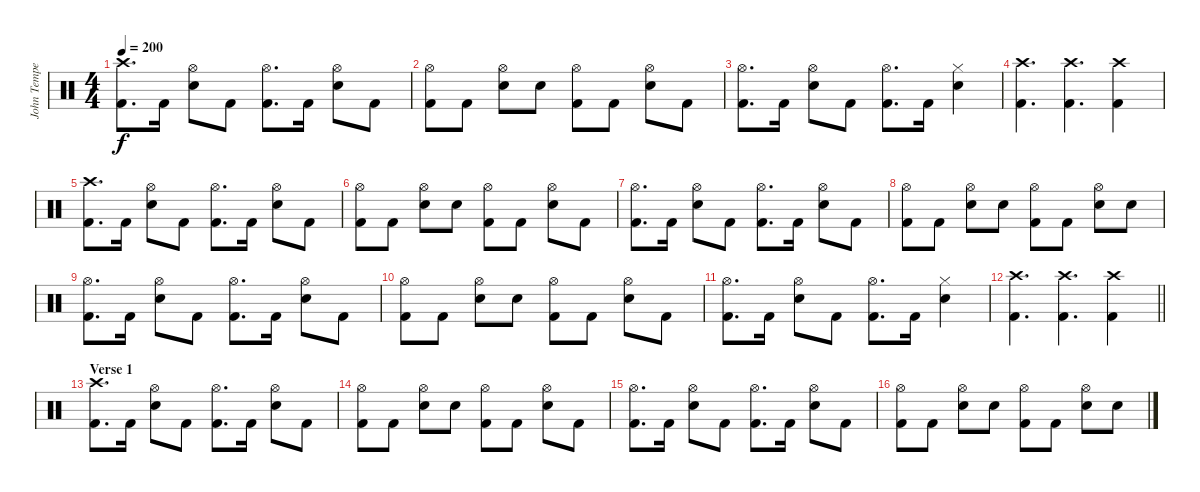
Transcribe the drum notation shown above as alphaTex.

\track ("John Tempesta" "John Tempe") {instrument percussion}
\staff {score}
\articulation defaults
\ts (4 4)
\tempo 200
\clef neutral
\ks c
("Crash high (hit)" "Kick (hit) 2").8{d dy f} "Kick (hit) 2".16 ("Electric Snare (hit)" "Hi-Hat (open)").8 "Kick (hit) 2".8 ("Hi-Hat (open)" "Kick (hit) 2").8{d} "Kick (hit) 2".16 ("Electric Snare (hit)" "Hi-Hat (open)").8 "Kick (hit) 2".8 |
("Hi-Hat (open)" "Kick (hit) 2").8 "Kick (hit) 2".8 ("Electric Snare (hit)" "Hi-Hat (open)").8 "Electric Snare (hit)".8 ("Hi-Hat (open)" "Kick (hit) 2").8 "Kick (hit) 2".8 ("Electric Snare (hit)" "Hi-Hat (open)").8 "Kick (hit) 2".8 |
("Hi-Hat (open)" "Kick (hit) 2").8{d} "Kick (hit) 2".16 ("Electric Snare (hit)" "Hi-Hat (open)").8 "Kick (hit) 2".8 ("Hi-Hat (open)" "Kick (hit) 2").8{d} "Kick (hit) 2".16 ("Electric Snare (hit)" "Hi-Hat (closed)").4 |
("Crash high (hit)" "Kick (hit) 2").4{d} ("Crash high (hit)" "Kick (hit) 2").4{d} ("Crash high (hit)" "Kick (hit) 2").4 |
("Crash high (hit)" "Kick (hit) 2").8{d} "Kick (hit) 2".16 ("Electric Snare (hit)" "Hi-Hat (open)").8 "Kick (hit) 2".8 ("Hi-Hat (open)" "Kick (hit) 2").8{d} "Kick (hit) 2".16 ("Electric Snare (hit)" "Hi-Hat (open)").8 "Kick (hit) 2".8 |
("Hi-Hat (open)" "Kick (hit) 2").8 "Kick (hit) 2".8 ("Electric Snare (hit)" "Hi-Hat (open)").8 "Electric Snare (hit)".8 ("Hi-Hat (open)" "Kick (hit) 2").8 "Kick (hit) 2".8 ("Electric Snare (hit)" "Hi-Hat (open)").8 "Kick (hit) 2".8 |
("Hi-Hat (open)" "Kick (hit) 2").8{d} "Kick (hit) 2".16 ("Electric Snare (hit)" "Hi-Hat (open)").8 "Kick (hit) 2".8 ("Hi-Hat (open)" "Kick (hit) 2").8{d} "Kick (hit) 2".16 ("Electric Snare (hit)" "Hi-Hat (open)").8 "Kick (hit) 2".8 |
("Hi-Hat (open)" "Kick (hit) 2").8 "Kick (hit) 2".8 ("Electric Snare (hit)" "Hi-Hat (open)").8 "Electric Snare (hit)".8 ("Hi-Hat (open)" "Kick (hit) 2").8 "Kick (hit) 2".8 ("Electric Snare (hit)" "Hi-Hat (open)").8 "Electric Snare (hit)".8 |
("Hi-Hat (open)" "Kick (hit) 2").8{d} "Kick (hit) 2".16 ("Electric Snare (hit)" "Hi-Hat (open)").8 "Kick (hit) 2".8 ("Hi-Hat (open)" "Kick (hit) 2").8{d} "Kick (hit) 2".16 ("Electric Snare (hit)" "Hi-Hat (open)").8 "Kick (hit) 2".8 |
("Hi-Hat (open)" "Kick (hit) 2").8 "Kick (hit) 2".8 ("Electric Snare (hit)" "Hi-Hat (open)").8 "Electric Snare (hit)".8 ("Hi-Hat (open)" "Kick (hit) 2").8 "Kick (hit) 2".8 ("Electric Snare (hit)" "Hi-Hat (open)").8 "Kick (hit) 2".8 |
("Hi-Hat (open)" "Kick (hit) 2").8{d} "Kick (hit) 2".16 ("Electric Snare (hit)" "Hi-Hat (open)").8 "Kick (hit) 2".8 ("Hi-Hat (open)" "Kick (hit) 2").8{d} "Kick (hit) 2".16 ("Electric Snare (hit)" "Hi-Hat (closed)").4 |
\barLineRight lightlight
("Crash high (hit)" "Kick (hit) 2").4{d} ("Crash high (hit)" "Kick (hit) 2").4{d} ("Crash high (hit)" "Kick (hit) 2").4 |
\section ("" "Verse 1")
("Crash high (hit)" "Kick (hit) 2").8{d} "Kick (hit) 2".16 ("Electric Snare (hit)" "Hi-Hat (open)").8 "Kick (hit) 2".8 ("Hi-Hat (open)" "Kick (hit) 2").8{d} "Kick (hit) 2".16 ("Electric Snare (hit)" "Hi-Hat (open)").8 "Kick (hit) 2".8 |
("Hi-Hat (open)" "Kick (hit) 2").8 "Kick (hit) 2".8 ("Electric Snare (hit)" "Hi-Hat (open)").8 "Electric Snare (hit)".8 ("Hi-Hat (open)" "Kick (hit) 2").8 "Kick (hit) 2".8 ("Electric Snare (hit)" "Hi-Hat (open)").8 "Kick (hit) 2".8 |
("Hi-Hat (open)" "Kick (hit) 2").8{d} "Kick (hit) 2".16 ("Electric Snare (hit)" "Hi-Hat (open)").8 "Kick (hit) 2".8 ("Hi-Hat (open)" "Kick (hit) 2").8{d} "Kick (hit) 2".16 ("Electric Snare (hit)" "Hi-Hat (open)").8 "Kick (hit) 2".8 |
("Hi-Hat (open)" "Kick (hit) 2").8 "Kick (hit) 2".8 ("Electric Snare (hit)" "Hi-Hat (open)").8 "Electric Snare (hit)".8 ("Hi-Hat (open)" "Kick (hit) 2").8 "Kick (hit) 2".8 ("Electric Snare (hit)" "Hi-Hat (open)").8 "Electric Snare (hit)".8
